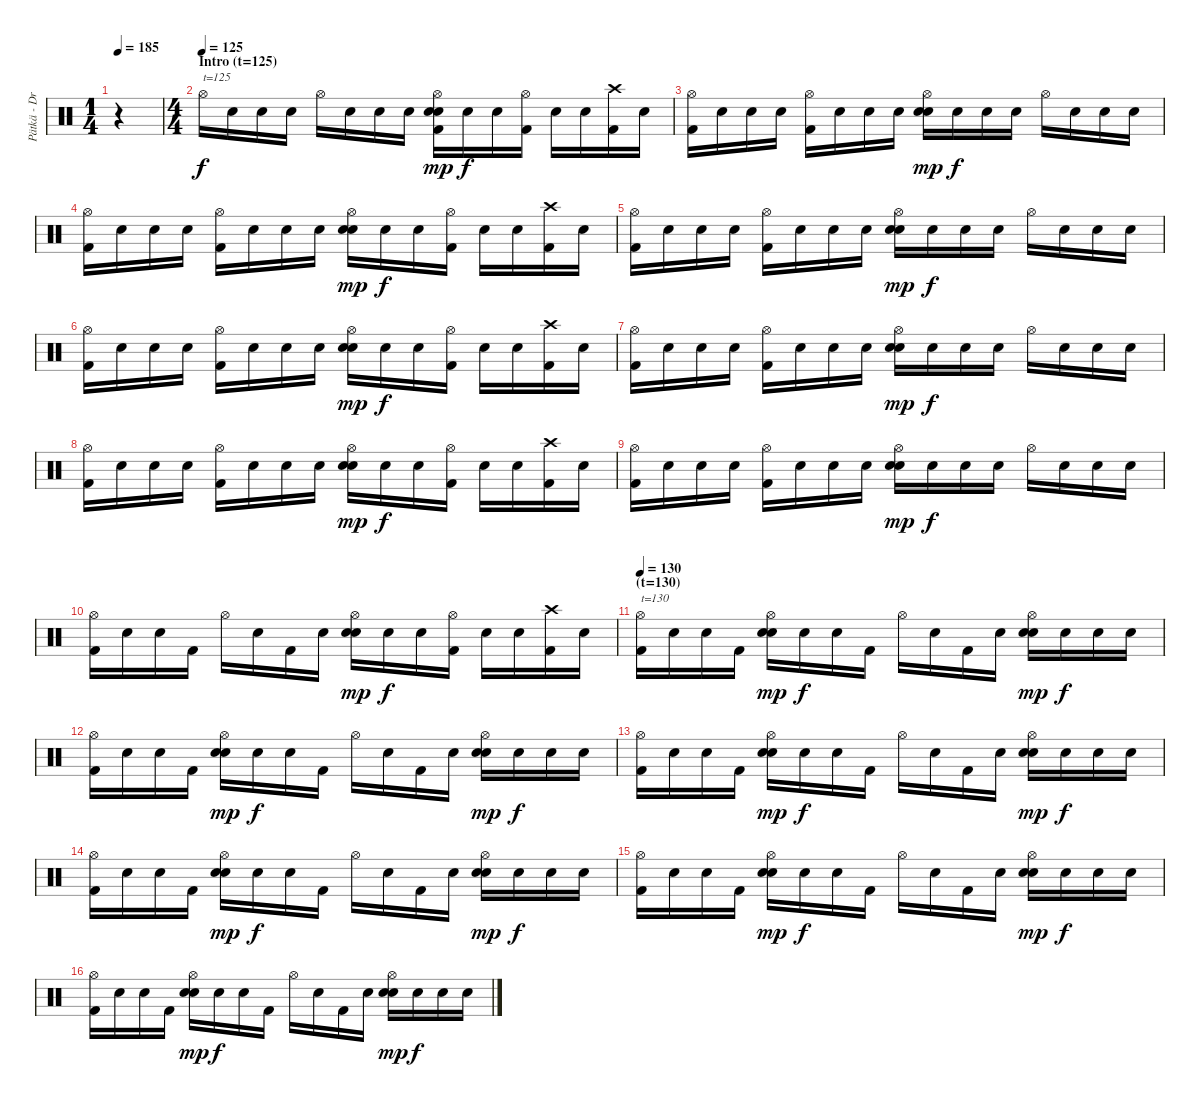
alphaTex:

\track ("Pätkä - Drums" "Pätkä - Dr") {instrument percussion}
\staff {score}
\articulation defaults
\ts (1 4)
\tempo 185
\tempo 125
\tempo 185
\clef neutral
\ks c
r.4{dy f volume 16 balance 8} |
\ts (4 4)
\section ("" "Intro (t=125)")
\tempo (125)
"Hi-Hat (open)".16{txt "t=125" volume 16 balance 8} "Snare (hit)".16 "Snare (hit)".16 "Snare (hit)".16 "Hi-Hat (open)".16 "Snare (hit)".16 "Snare (hit)".16 "Snare (hit)".16 ("Hi-Hat (open)" "Electric Snare (hit)" "Snare (hit) 2" "Kick (hit) 2").16{dy mp} "Snare (hit)".16{dy f} "Snare (hit)".16 ("Hi-Hat (open)" "Kick (hit) 2").16 "Snare (hit)".16 "Snare (hit)".16 ("Crash high (hit)" "Kick (hit) 2").16 "Snare (hit)".16 |
("Hi-Hat (open)" "Kick (hit) 2").16 "Snare (hit)".16 "Snare (hit)".16 "Snare (hit)".16 ("Hi-Hat (open)" "Kick (hit) 2").16 "Snare (hit)".16 "Snare (hit)".16 "Snare (hit)".16 ("Hi-Hat (open)" "Electric Snare (hit)" "Snare (hit) 2").16{dy mp} "Snare (hit)".16{dy f} "Snare (hit)".16 "Snare (hit)".16 "Hi-Hat (open)".16 "Snare (hit)".16 "Snare (hit)".16 "Snare (hit)".16 |
("Hi-Hat (open)" "Kick (hit) 2").16 "Snare (hit)".16 "Snare (hit)".16 "Snare (hit)".16 ("Hi-Hat (open)" "Kick (hit) 2").16 "Snare (hit)".16 "Snare (hit)".16 "Snare (hit)".16 ("Hi-Hat (open)" "Electric Snare (hit)" "Snare (hit) 2").16{dy mp} "Snare (hit)".16{dy f} "Snare (hit)".16 ("Hi-Hat (open)" "Kick (hit) 2").16 "Snare (hit)".16 "Snare (hit)".16 ("Crash high (hit)" "Kick (hit) 2").16 "Snare (hit)".16 |
("Hi-Hat (open)" "Kick (hit) 2").16 "Snare (hit)".16 "Snare (hit)".16 "Snare (hit)".16 ("Hi-Hat (open)" "Kick (hit) 2").16 "Snare (hit)".16 "Snare (hit)".16 "Snare (hit)".16 ("Hi-Hat (open)" "Electric Snare (hit)" "Snare (hit) 2").16{dy mp} "Snare (hit)".16{dy f} "Snare (hit)".16 "Snare (hit)".16 "Hi-Hat (open)".16 "Snare (hit)".16 "Snare (hit)".16 "Snare (hit)".16 |
("Hi-Hat (open)" "Kick (hit) 2").16 "Snare (hit)".16 "Snare (hit)".16 "Snare (hit)".16 ("Hi-Hat (open)" "Kick (hit) 2").16 "Snare (hit)".16 "Snare (hit)".16 "Snare (hit)".16 ("Hi-Hat (open)" "Electric Snare (hit)" "Snare (hit) 2").16{dy mp} "Snare (hit)".16{dy f} "Snare (hit)".16 ("Hi-Hat (open)" "Kick (hit) 2").16 "Snare (hit)".16 "Snare (hit)".16 ("Crash high (hit)" "Kick (hit) 2").16 "Snare (hit)".16 |
("Hi-Hat (open)" "Kick (hit) 2").16 "Snare (hit)".16 "Snare (hit)".16 "Snare (hit)".16 ("Hi-Hat (open)" "Kick (hit) 2").16 "Snare (hit)".16 "Snare (hit)".16 "Snare (hit)".16 ("Hi-Hat (open)" "Electric Snare (hit)" "Snare (hit) 2").16{dy mp} "Snare (hit)".16{dy f} "Snare (hit)".16 "Snare (hit)".16 "Hi-Hat (open)".16 "Snare (hit)".16 "Snare (hit)".16 "Snare (hit)".16 |
("Hi-Hat (open)" "Kick (hit) 2").16 "Snare (hit)".16 "Snare (hit)".16 "Snare (hit)".16 ("Hi-Hat (open)" "Kick (hit) 2").16 "Snare (hit)".16 "Snare (hit)".16 "Snare (hit)".16 ("Hi-Hat (open)" "Electric Snare (hit)" "Snare (hit) 2").16{dy mp} "Snare (hit)".16{dy f} "Snare (hit)".16 ("Hi-Hat (open)" "Kick (hit) 2").16 "Snare (hit)".16 "Snare (hit)".16 ("Crash high (hit)" "Kick (hit) 2").16 "Snare (hit)".16 |
("Hi-Hat (open)" "Kick (hit) 2").16 "Snare (hit)".16 "Snare (hit)".16 "Snare (hit)".16 ("Hi-Hat (open)" "Kick (hit) 2").16 "Snare (hit)".16 "Snare (hit)".16 "Snare (hit)".16 ("Hi-Hat (open)" "Electric Snare (hit)" "Snare (hit) 2").16{dy mp} "Snare (hit)".16{dy f} "Snare (hit)".16 "Snare (hit)".16 "Hi-Hat (open)".16 "Snare (hit)".16 "Snare (hit)".16 "Snare (hit)".16 |
("Hi-Hat (open)" "Kick (hit) 2").16 "Snare (hit)".16 "Snare (hit)".16 "Kick (hit) 2".16 "Hi-Hat (open)".16 "Snare (hit)".16 "Kick (hit) 2".16 "Snare (hit)".16 ("Hi-Hat (open)" "Electric Snare (hit)" "Snare (hit) 2").16{dy mp} "Snare (hit)".16{dy f} "Snare (hit)".16 ("Hi-Hat (open)" "Kick (hit) 2").16 "Snare (hit)".16 "Snare (hit)".16 ("Crash high (hit)" "Kick (hit) 2").16 "Snare (hit)".16 |
\section ("" "(t=130)")
\tempo 130
("Hi-Hat (open)" "Kick (hit) 2").16{txt "t=130" volume 16 balance 8} "Snare (hit)".16 "Snare (hit)".16 "Kick (hit) 2".16 ("Hi-Hat (open)" "Electric Snare (hit)" "Snare (hit) 2").16{dy mp} "Snare (hit)".16{dy f} "Snare (hit)".16 "Kick (hit) 2".16 "Hi-Hat (open)".16 "Snare (hit)".16 "Kick (hit) 2".16 "Snare (hit)".16 ("Hi-Hat (open)" "Electric Snare (hit)" "Snare (hit) 2").16{dy mp} "Snare (hit)".16{dy f} "Snare (hit)".16 "Snare (hit)".16 |
("Hi-Hat (open)" "Kick (hit) 2").16 "Snare (hit)".16 "Snare (hit)".16 "Kick (hit) 2".16 ("Hi-Hat (open)" "Electric Snare (hit)" "Snare (hit) 2").16{dy mp} "Snare (hit)".16{dy f} "Snare (hit)".16 "Kick (hit) 2".16 "Hi-Hat (open)".16 "Snare (hit)".16 "Kick (hit) 2".16 "Snare (hit)".16 ("Hi-Hat (open)" "Electric Snare (hit)" "Snare (hit) 2").16{dy mp} "Snare (hit)".16{dy f} "Snare (hit)".16 "Snare (hit)".16 |
("Hi-Hat (open)" "Kick (hit) 2").16 "Snare (hit)".16 "Snare (hit)".16 "Kick (hit) 2".16 ("Hi-Hat (open)" "Electric Snare (hit)" "Snare (hit) 2").16{dy mp} "Snare (hit)".16{dy f} "Snare (hit)".16 "Kick (hit) 2".16 "Hi-Hat (open)".16 "Snare (hit)".16 "Kick (hit) 2".16 "Snare (hit)".16 ("Hi-Hat (open)" "Electric Snare (hit)" "Snare (hit) 2").16{dy mp} "Snare (hit)".16{dy f} "Snare (hit)".16 "Snare (hit)".16 |
("Hi-Hat (open)" "Kick (hit) 2").16 "Snare (hit)".16 "Snare (hit)".16 "Kick (hit) 2".16 ("Hi-Hat (open)" "Electric Snare (hit)" "Snare (hit) 2").16{dy mp} "Snare (hit)".16{dy f} "Snare (hit)".16 "Kick (hit) 2".16 "Hi-Hat (open)".16 "Snare (hit)".16 "Kick (hit) 2".16 "Snare (hit)".16 ("Hi-Hat (open)" "Electric Snare (hit)" "Snare (hit) 2").16{dy mp} "Snare (hit)".16{dy f} "Snare (hit)".16 "Snare (hit)".16 |
("Hi-Hat (open)" "Kick (hit) 2").16 "Snare (hit)".16 "Snare (hit)".16 "Kick (hit) 2".16 ("Hi-Hat (open)" "Electric Snare (hit)" "Snare (hit) 2").16{dy mp} "Snare (hit)".16{dy f} "Snare (hit)".16 "Kick (hit) 2".16 "Hi-Hat (open)".16 "Snare (hit)".16 "Kick (hit) 2".16 "Snare (hit)".16 ("Hi-Hat (open)" "Electric Snare (hit)" "Snare (hit) 2").16{dy mp} "Snare (hit)".16{dy f} "Snare (hit)".16 "Snare (hit)".16 |
("Hi-Hat (open)" "Kick (hit) 2").16 "Snare (hit)".16 "Snare (hit)".16 "Kick (hit) 2".16 ("Hi-Hat (open)" "Electric Snare (hit)" "Snare (hit) 2").16{dy mp} "Snare (hit)".16{dy f} "Snare (hit)".16 "Kick (hit) 2".16 "Hi-Hat (open)".16 "Snare (hit)".16 "Kick (hit) 2".16 "Snare (hit)".16 ("Hi-Hat (open)" "Electric Snare (hit)" "Snare (hit) 2").16{dy mp} "Snare (hit)".16{dy f} "Snare (hit)".16 "Snare (hit)".16
